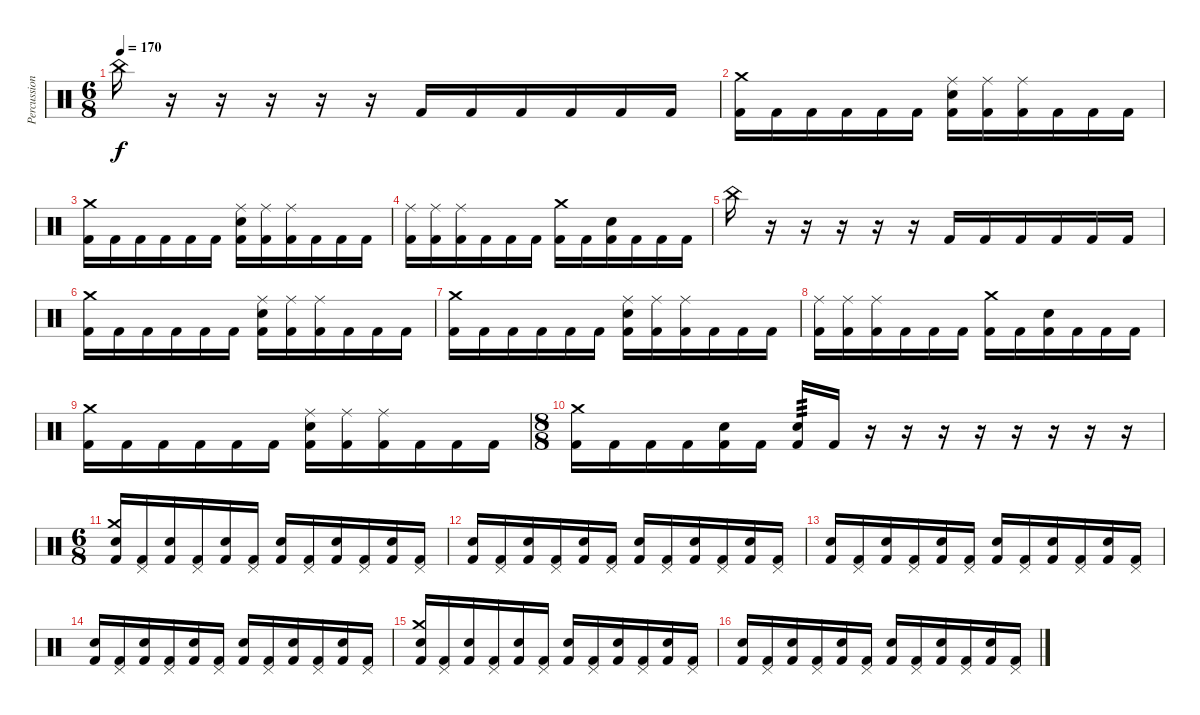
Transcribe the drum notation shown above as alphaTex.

\track ("Percussions" "Percussion") {instrument percussion}
\staff {score}
\articulation defaults
\ts (6 8)
\tempo 170
\clef neutral
\ks c "China (hit)".16{dy f}
r.16 r.16 r.16 r.16 r.16 "Kick (hit) 2".16 "Kick (hit) 2".16 "Kick (hit) 2".16 "Kick (hit) 2".16 "Kick (hit) 2".16 "Kick (hit) 2".16 |
("Crash medium (hit)" "Kick (hit) 2").16 "Kick (hit) 2".16 "Kick (hit) 2".16 "Kick (hit) 2".16 "Kick (hit) 2".16 "Kick (hit) 2".16 ("Snare (hit) 2" "Ride (middle)" "Kick (hit) 2").16 ("Ride (middle)" "Kick (hit) 2").16 ("Ride (middle)" "Kick (hit) 2").16 "Kick (hit) 2".16 "Kick (hit) 2".16 "Kick (hit) 2".16 |
("Crash medium (hit)" "Kick (hit) 2").16 "Kick (hit) 2".16 "Kick (hit) 2".16 "Kick (hit) 2".16 "Kick (hit) 2".16 "Kick (hit) 2".16 ("Snare (hit) 2" "Ride (middle)" "Kick (hit) 2").16 ("Ride (middle)" "Kick (hit) 2").16 ("Ride (middle)" "Kick (hit) 2").16 "Kick (hit) 2".16 "Kick (hit) 2".16 "Kick (hit) 2".16 |
("Ride (middle)" "Kick (hit) 2").16 ("Ride (middle)" "Kick (hit) 2").16 ("Ride (middle)" "Kick (hit) 2").16 "Kick (hit) 2".16 "Kick (hit) 2".16 "Kick (hit) 2".16 ("Crash medium (hit)" "Kick (hit) 2").16 "Kick (hit) 2".16 ("Snare (hit) 2" "Kick (hit) 2").16 "Kick (hit) 2".16 "Kick (hit) 2".16 "Kick (hit) 2".16 |
"China (hit)".16 r.16 r.16 r.16 r.16 r.16 "Kick (hit) 2".16 "Kick (hit) 2".16 "Kick (hit) 2".16 "Kick (hit) 2".16 "Kick (hit) 2".16 "Kick (hit) 2".16 |
("Crash medium (hit)" "Kick (hit) 2").16 "Kick (hit) 2".16 "Kick (hit) 2".16 "Kick (hit) 2".16 "Kick (hit) 2".16 "Kick (hit) 2".16 ("Snare (hit) 2" "Ride (middle)" "Kick (hit) 2").16 ("Ride (middle)" "Kick (hit) 2").16 ("Ride (middle)" "Kick (hit) 2").16 "Kick (hit) 2".16 "Kick (hit) 2".16 "Kick (hit) 2".16 |
("Crash medium (hit)" "Kick (hit) 2").16 "Kick (hit) 2".16 "Kick (hit) 2".16 "Kick (hit) 2".16 "Kick (hit) 2".16 "Kick (hit) 2".16 ("Snare (hit) 2" "Ride (middle)" "Kick (hit) 2").16 ("Ride (middle)" "Kick (hit) 2").16 ("Ride (middle)" "Kick (hit) 2").16 "Kick (hit) 2".16 "Kick (hit) 2".16 "Kick (hit) 2".16 |
("Ride (middle)" "Kick (hit) 2").16 ("Ride (middle)" "Kick (hit) 2").16 ("Ride (middle)" "Kick (hit) 2").16 "Kick (hit) 2".16 "Kick (hit) 2".16 "Kick (hit) 2".16 ("Crash medium (hit)" "Kick (hit) 2").16 "Kick (hit) 2".16 ("Snare (hit) 2" "Kick (hit) 2").16 "Kick (hit) 2".16 "Kick (hit) 2".16 "Kick (hit) 2".16 |
("Crash medium (hit)" "Kick (hit) 2").16 "Kick (hit) 2".16 "Kick (hit) 2".16 "Kick (hit) 2".16 "Kick (hit) 2".16 "Kick (hit) 2".16 ("Snare (hit) 2" "Ride (middle)" "Kick (hit) 2").16 ("Ride (middle)" "Kick (hit) 2").16 ("Ride (middle)" "Kick (hit) 2").16 "Kick (hit) 2".16 "Kick (hit) 2".16 "Kick (hit) 2".16 |
\ts (8 8)
("Crash medium (hit)" "Kick (hit) 2").16 "Kick (hit) 2".16 "Kick (hit) 2".16 "Kick (hit) 2".16 ("Snare (hit) 2" "Kick (hit) 2").16 "Kick (hit) 2".16 ("Snare (hit) 2" "Kick (hit) 2").16{tp 3} "Kick (hit) 2".16 r.16 r.16 r.16 r.16 r.16 r.16 r.16 r.16 |
\ts (6 8)
("Crash medium (hit)" "Snare (hit) 2" "Kick (hit) 2").16 ("Pedal Hi-Hat (hit)" "Kick (hit) 2").16 ("Snare (hit) 2" "Kick (hit) 2").16 ("Pedal Hi-Hat (hit)" "Kick (hit) 2").16 ("Snare (hit) 2" "Kick (hit) 2").16 ("Pedal Hi-Hat (hit)" "Kick (hit) 2").16 ("Snare (hit) 2" "Kick (hit) 2").16 ("Pedal Hi-Hat (hit)" "Kick (hit) 2").16 ("Snare (hit) 2" "Kick (hit) 2").16 ("Pedal Hi-Hat (hit)" "Kick (hit) 2").16 ("Snare (hit) 2" "Kick (hit) 2").16 ("Pedal Hi-Hat (hit)" "Kick (hit) 2").16 |
("Snare (hit) 2" "Kick (hit) 2").16 ("Pedal Hi-Hat (hit)" "Kick (hit) 2").16 ("Snare (hit) 2" "Kick (hit) 2").16 ("Pedal Hi-Hat (hit)" "Kick (hit) 2").16 ("Snare (hit) 2" "Kick (hit) 2").16 ("Pedal Hi-Hat (hit)" "Kick (hit) 2").16 ("Snare (hit) 2" "Kick (hit) 2").16 ("Pedal Hi-Hat (hit)" "Kick (hit) 2").16 ("Snare (hit) 2" "Kick (hit) 2").16 ("Pedal Hi-Hat (hit)" "Kick (hit) 2").16 ("Snare (hit) 2" "Kick (hit) 2").16 ("Pedal Hi-Hat (hit)" "Kick (hit) 2").16 |
("Snare (hit) 2" "Kick (hit) 2").16 ("Pedal Hi-Hat (hit)" "Kick (hit) 2").16 ("Snare (hit) 2" "Kick (hit) 2").16 ("Pedal Hi-Hat (hit)" "Kick (hit) 2").16 ("Snare (hit) 2" "Kick (hit) 2").16 ("Pedal Hi-Hat (hit)" "Kick (hit) 2").16 ("Snare (hit) 2" "Kick (hit) 2").16 ("Pedal Hi-Hat (hit)" "Kick (hit) 2").16 ("Snare (hit) 2" "Kick (hit) 2").16 ("Pedal Hi-Hat (hit)" "Kick (hit) 2").16 ("Snare (hit) 2" "Kick (hit) 2").16 ("Pedal Hi-Hat (hit)" "Kick (hit) 2").16 |
("Snare (hit) 2" "Kick (hit) 2").16 ("Pedal Hi-Hat (hit)" "Kick (hit) 2").16 ("Snare (hit) 2" "Kick (hit) 2").16 ("Pedal Hi-Hat (hit)" "Kick (hit) 2").16 ("Snare (hit) 2" "Kick (hit) 2").16 ("Pedal Hi-Hat (hit)" "Kick (hit) 2").16 ("Snare (hit) 2" "Kick (hit) 2").16 ("Pedal Hi-Hat (hit)" "Kick (hit) 2").16 ("Snare (hit) 2" "Kick (hit) 2").16 ("Pedal Hi-Hat (hit)" "Kick (hit) 2").16 ("Snare (hit) 2" "Kick (hit) 2").16 ("Pedal Hi-Hat (hit)" "Kick (hit) 2").16 |
("Crash medium (hit)" "Snare (hit) 2" "Kick (hit) 2").16 ("Pedal Hi-Hat (hit)" "Kick (hit) 2").16 ("Snare (hit) 2" "Kick (hit) 2").16 ("Pedal Hi-Hat (hit)" "Kick (hit) 2").16 ("Snare (hit) 2" "Kick (hit) 2").16 ("Pedal Hi-Hat (hit)" "Kick (hit) 2").16 ("Snare (hit) 2" "Kick (hit) 2").16 ("Pedal Hi-Hat (hit)" "Kick (hit) 2").16 ("Snare (hit) 2" "Kick (hit) 2").16 ("Pedal Hi-Hat (hit)" "Kick (hit) 2").16 ("Snare (hit) 2" "Kick (hit) 2").16 ("Pedal Hi-Hat (hit)" "Kick (hit) 2").16 |
("Snare (hit) 2" "Kick (hit) 2").16 ("Pedal Hi-Hat (hit)" "Kick (hit) 2").16 ("Snare (hit) 2" "Kick (hit) 2").16 ("Pedal Hi-Hat (hit)" "Kick (hit) 2").16 ("Snare (hit) 2" "Kick (hit) 2").16 ("Pedal Hi-Hat (hit)" "Kick (hit) 2").16 ("Snare (hit) 2" "Kick (hit) 2").16 ("Pedal Hi-Hat (hit)" "Kick (hit) 2").16 ("Snare (hit) 2" "Kick (hit) 2").16 ("Pedal Hi-Hat (hit)" "Kick (hit) 2").16 ("Snare (hit) 2" "Kick (hit) 2").16 ("Pedal Hi-Hat (hit)" "Kick (hit) 2").16
